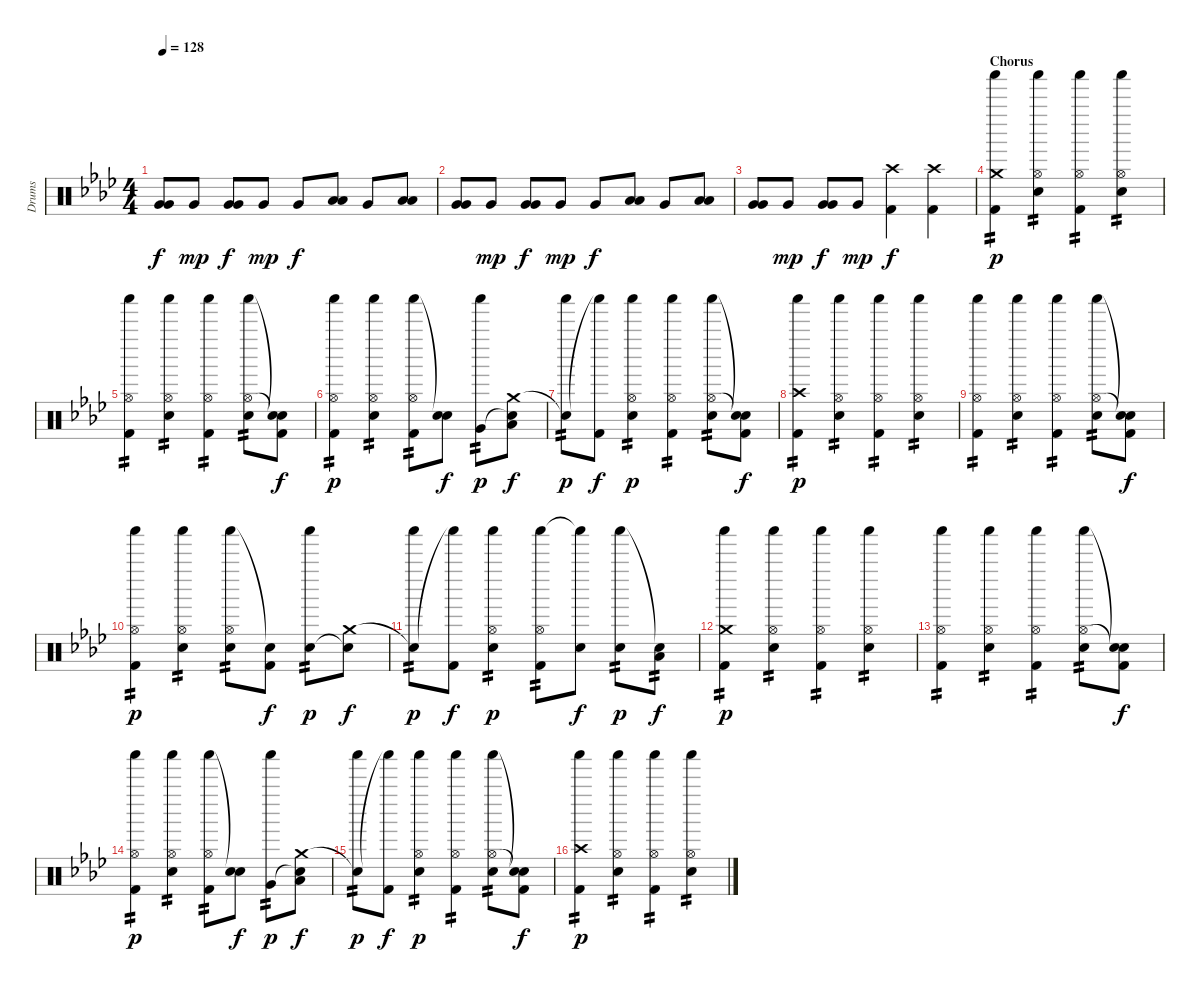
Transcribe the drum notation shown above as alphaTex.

\track ("Drums" "Drums") {instrument percussion}
\staff {score}
\articulation defaults
\ts (4 4)
\tempo 128
\clef neutral
\ks fminor
("Very Low Tom (hit)" "Very Low Tom (hit)").8{dy f} "Very Low Tom (hit)".8{dy mp} ("Very Low Tom (hit)" "Very Low Tom (hit)").8{dy f} "Very Low Tom (hit)".8{dy mp} "Very Low Tom (hit)".8{dy f} ("Low Tom (hit)" "Low Tom (hit)").8 "Very Low Tom (hit)".8 ("Low Floor Tom (hit)" "Low Floor Tom (hit)").8 |
("Very Low Tom (hit)" "Very Low Tom (hit)").8 "Very Low Tom (hit)".8{dy mp} ("Very Low Tom (hit)" "Very Low Tom (hit)").8{dy f} "Very Low Tom (hit)".8{dy mp} "Very Low Tom (hit)".8{dy f} ("Low Tom (hit)" "Low Tom (hit)").8 "Very Low Tom (hit)".8 ("Low Floor Tom (hit)" "Low Floor Tom (hit)").8 |
("Very Low Tom (hit)" "Very Low Tom (hit)").8 "Very Low Tom (hit)".8{dy mp} ("Very Low Tom (hit)" "Very Low Tom (hit)").8{dy f} "Very Low Tom (hit)".8{dy mp} ("Crash high (hit)" "Kick (hit) 2").4{dy f} ("Crash high (hit)" "Kick (hit) 2").4 |
\section ("" "Chorus")
("Crash medium (hit)" "Shaker (hit)" "Kick (hit) 2").4{tp 2 dy p} ("Shaker (hit)" "Hi-Hat (open)" "Electric Snare (hit)").4{tp 2} ("Shaker (hit)" "Hi-Hat (open)" "Kick (hit) 2").4{tp 2} ("Shaker (hit)" "Hi-Hat (open)" "Electric Snare (hit)").4{tp 2} |
("Shaker (hit)" "Hi-Hat (open)" "Kick (hit) 2").4{tp 2} ("Shaker (hit)" "Hi-Hat (open)" "Electric Snare (hit)").4{tp 2} ("Shaker (hit)" "Hi-Hat (open)" "Kick (hit) 2").4{tp 2} ("Shaker (hit)" "Hi-Hat (open)" "Electric Snare (hit)").8{tp 2} ("Snare (hit)"{t} "Snare (hit)"{t} "Kick (hit) 2").8{dy f} |
("Shaker (hit)" "Hi-Hat (open)" "Kick (hit) 2").4{tp 2 dy p} ("Shaker (hit)" "Hi-Hat (open)" "Electric Snare (hit)").4{tp 2} ("Shaker (hit)" "Hi-Hat (open)" "Kick (hit) 2").8{tp 2} ("Snare (hit)"{t} "Electric Snare (hit)").8{dy f} ("Shaker (hit)" "Very Low Tom (hit)").8{tp 2 dy p} ("Crash medium (hit)" "Snare (hit)"{t} "Low Floor Tom (hit)").8{dy f} |
("Snare (hit)"{t} "Shaker (hit)").8{tp 2 dy p} ("Shaker (hit)"{t} "Kick (hit) 2").8{dy f} ("Shaker (hit)" "Hi-Hat (open)" "Electric Snare (hit)").4{tp 2 dy p} ("Shaker (hit)" "Hi-Hat (open)" "Kick (hit) 2").4{tp 2} ("Shaker (hit)" "Hi-Hat (open)" "Electric Snare (hit)").8{tp 2} ("Snare (hit)"{t} "Snare (hit)"{t} "Kick (hit) 2").8{dy f} |
("Crash high (hit)" "Shaker (hit)" "Kick (hit) 2").4{tp 2 dy p} ("Shaker (hit)" "Hi-Hat (open)" "Electric Snare (hit)").4{tp 2} ("Shaker (hit)" "Hi-Hat (open)" "Kick (hit) 2").4{tp 2} ("Shaker (hit)" "Hi-Hat (open)" "Electric Snare (hit)").4{tp 2} |
("Shaker (hit)" "Hi-Hat (open)" "Kick (hit) 2").4{tp 2} ("Shaker (hit)" "Hi-Hat (open)" "Electric Snare (hit)").4{tp 2} ("Shaker (hit)" "Hi-Hat (open)" "Kick (hit) 2").4{tp 2} ("Shaker (hit)" "Hi-Hat (open)" "Electric Snare (hit)").8{tp 2} ("Snare (hit)"{t} "Snare (hit)"{t} "Kick (hit) 2").8{dy f} |
("Shaker (hit)" "Hi-Hat (open)" "Kick (hit) 2").4{tp 2 dy p} ("Shaker (hit)" "Hi-Hat (open)" "Electric Snare (hit)").4{tp 2} ("Shaker (hit)" "Hi-Hat (open)" "Electric Snare (hit)").8{tp 2} ("Snare (hit)"{t} "Kick (hit) 2").8{dy f} ("Shaker (hit)" "Electric Snare (hit)").8{tp 2 dy p} ("Crash medium (hit)" "Snare (hit)"{t}).8{dy f} |
("Snare (hit)"{t} "Shaker (hit)").8{tp 2 dy p} ("Shaker (hit)"{t} "Kick (hit) 2").8{dy f} ("Shaker (hit)" "Hi-Hat (open)" "Electric Snare (hit)").4{tp 2 dy p} ("Shaker (hit)" "Hi-Hat (open)" "Kick (hit) 2").8{tp 2} ("Shaker (hit)"{t} "Electric Snare (hit)").8{dy f} ("Shaker (hit)" "Electric Snare (hit)").8{tp 2 dy p} ("Snare (hit)"{t} "Low Floor Tom (hit)").8{tp 2 dy f} |
("Crash medium (hit)" "Shaker (hit)" "Kick (hit) 2").4{tp 2 dy p} ("Shaker (hit)" "Hi-Hat (open)" "Electric Snare (hit)").4{tp 2} ("Shaker (hit)" "Hi-Hat (open)" "Kick (hit) 2").4{tp 2} ("Shaker (hit)" "Hi-Hat (open)" "Electric Snare (hit)").4{tp 2} |
("Shaker (hit)" "Hi-Hat (open)" "Kick (hit) 2").4{tp 2} ("Shaker (hit)" "Hi-Hat (open)" "Electric Snare (hit)").4{tp 2} ("Shaker (hit)" "Hi-Hat (open)" "Kick (hit) 2").4{tp 2} ("Shaker (hit)" "Hi-Hat (open)" "Electric Snare (hit)").8{tp 2} ("Snare (hit)"{t} "Snare (hit)"{t} "Kick (hit) 2").8{dy f} |
("Shaker (hit)" "Hi-Hat (open)" "Kick (hit) 2").4{tp 2 dy p} ("Shaker (hit)" "Hi-Hat (open)" "Electric Snare (hit)").4{tp 2} ("Shaker (hit)" "Hi-Hat (open)" "Kick (hit) 2").8{tp 2} ("Snare (hit)"{t} "Electric Snare (hit)").8{dy f} ("Shaker (hit)" "Very Low Tom (hit)").8{tp 2 dy p} ("Crash medium (hit)" "Snare (hit)"{t} "Low Floor Tom (hit)").8{dy f} |
("Snare (hit)"{t} "Shaker (hit)").8{tp 2 dy p} ("Shaker (hit)"{t} "Kick (hit) 2").8{dy f} ("Shaker (hit)" "Hi-Hat (open)" "Electric Snare (hit)").4{tp 2 dy p} ("Shaker (hit)" "Hi-Hat (open)" "Kick (hit) 2").4{tp 2} ("Shaker (hit)" "Hi-Hat (open)" "Electric Snare (hit)").8{tp 2} ("Snare (hit)"{t} "Snare (hit)"{t} "Kick (hit) 2").8{dy f} |
("Crash high (hit)" "Shaker (hit)" "Kick (hit) 2").4{tp 2 dy p} ("Shaker (hit)" "Hi-Hat (open)" "Electric Snare (hit)").4{tp 2} ("Shaker (hit)" "Hi-Hat (open)" "Kick (hit) 2").4{tp 2} ("Shaker (hit)" "Hi-Hat (open)" "Electric Snare (hit)").4{tp 2}
